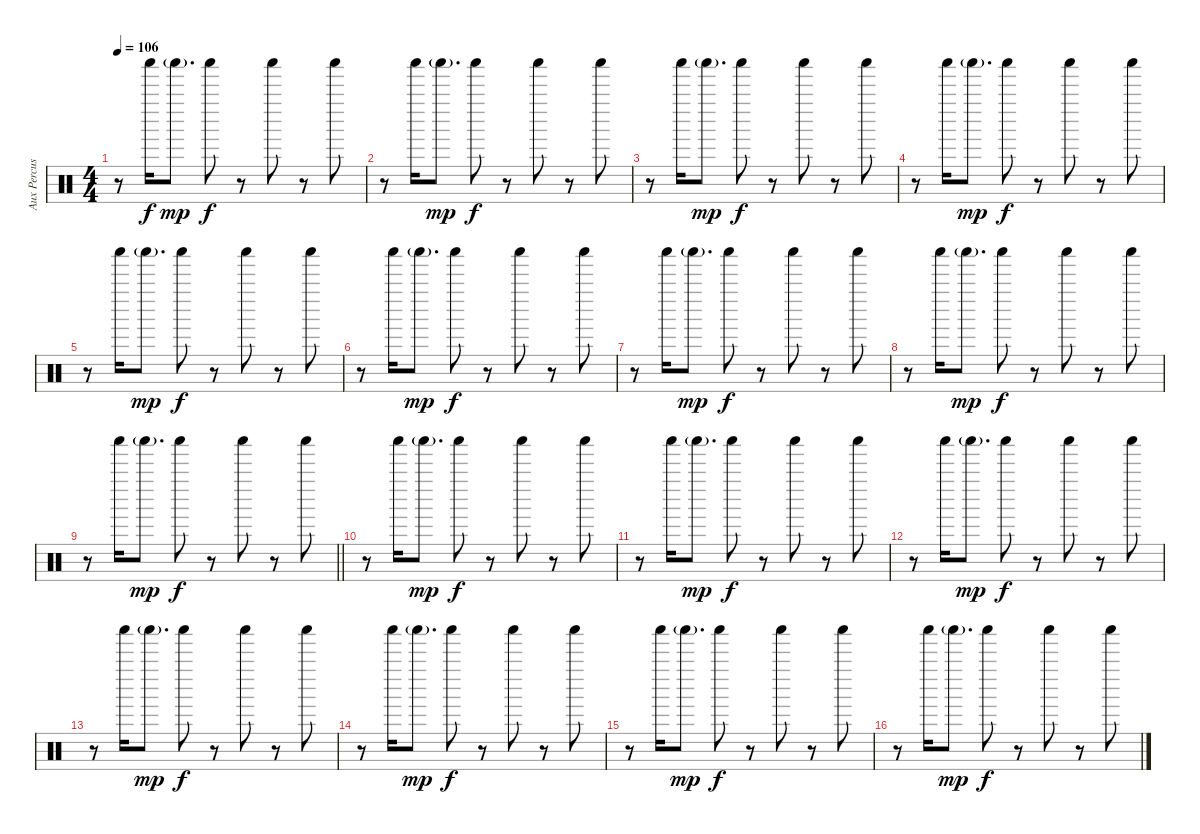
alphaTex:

\track ("Aux Percussion" "Aux Percus") {instrument percussion}
\staff {score}
\articulation defaults
\ts (4 4)
\tempo 106
\clef neutral
\ks c
r.8{dy f} "Shaker (hit)".16 "Shaker (hit)"{g}.8{d dy mp} "Shaker (hit)".8{dy f} r.8 "Shaker (hit)".8 r.8 "Shaker (hit)".8 |
r.8 "Shaker (hit)".16 "Shaker (hit)"{g}.8{d dy mp} "Shaker (hit)".8{dy f} r.8 "Shaker (hit)".8 r.8 "Shaker (hit)".8 |
r.8 "Shaker (hit)".16 "Shaker (hit)"{g}.8{d dy mp} "Shaker (hit)".8{dy f} r.8 "Shaker (hit)".8 r.8 "Shaker (hit)".8 |
r.8 "Shaker (hit)".16 "Shaker (hit)"{g}.8{d dy mp} "Shaker (hit)".8{dy f} r.8 "Shaker (hit)".8 r.8 "Shaker (hit)".8 |
r.8 "Shaker (hit)".16 "Shaker (hit)"{g}.8{d dy mp} "Shaker (hit)".8{dy f} r.8 "Shaker (hit)".8 r.8 "Shaker (hit)".8 |
r.8 "Shaker (hit)".16 "Shaker (hit)"{g}.8{d dy mp} "Shaker (hit)".8{dy f} r.8 "Shaker (hit)".8 r.8 "Shaker (hit)".8 |
r.8 "Shaker (hit)".16 "Shaker (hit)"{g}.8{d dy mp} "Shaker (hit)".8{dy f} r.8 "Shaker (hit)".8 r.8 "Shaker (hit)".8 |
r.8 "Shaker (hit)".16 "Shaker (hit)"{g}.8{d dy mp} "Shaker (hit)".8{dy f} r.8 "Shaker (hit)".8 r.8 "Shaker (hit)".8 |
\barLineRight lightlight
r.8 "Shaker (hit)".16 "Shaker (hit)"{g}.8{d dy mp} "Shaker (hit)".8{dy f} r.8 "Shaker (hit)".8 r.8 "Shaker (hit)".8 |
r.8 "Shaker (hit)".16 "Shaker (hit)"{g}.8{d dy mp} "Shaker (hit)".8{dy f} r.8 "Shaker (hit)".8 r.8 "Shaker (hit)".8 |
r.8 "Shaker (hit)".16 "Shaker (hit)"{g}.8{d dy mp} "Shaker (hit)".8{dy f} r.8 "Shaker (hit)".8 r.8 "Shaker (hit)".8 |
r.8 "Shaker (hit)".16 "Shaker (hit)"{g}.8{d dy mp} "Shaker (hit)".8{dy f} r.8 "Shaker (hit)".8 r.8 "Shaker (hit)".8 |
r.8 "Shaker (hit)".16 "Shaker (hit)"{g}.8{d dy mp} "Shaker (hit)".8{dy f} r.8 "Shaker (hit)".8 r.8 "Shaker (hit)".8 |
r.8 "Shaker (hit)".16 "Shaker (hit)"{g}.8{d dy mp} "Shaker (hit)".8{dy f} r.8 "Shaker (hit)".8 r.8 "Shaker (hit)".8 |
r.8 "Shaker (hit)".16 "Shaker (hit)"{g}.8{d dy mp} "Shaker (hit)".8{dy f} r.8 "Shaker (hit)".8 r.8 "Shaker (hit)".8 |
r.8 "Shaker (hit)".16 "Shaker (hit)"{g}.8{d dy mp} "Shaker (hit)".8{dy f} r.8 "Shaker (hit)".8 r.8 "Shaker (hit)".8
